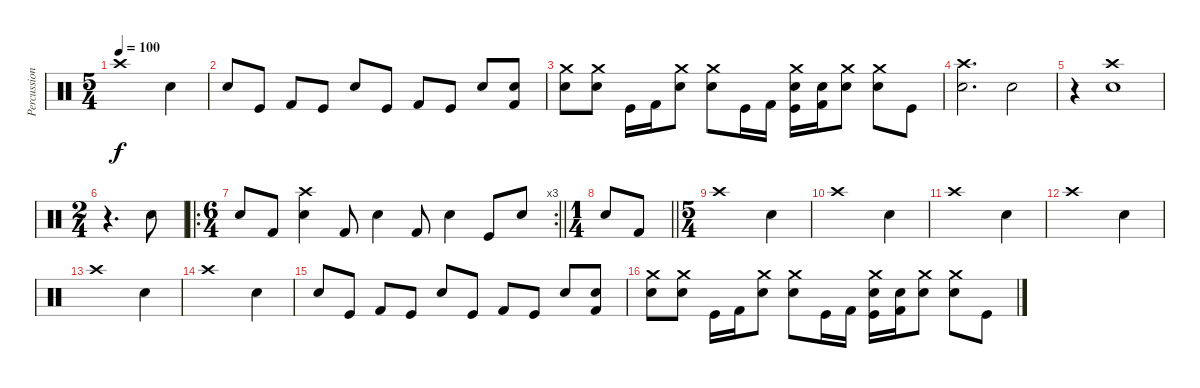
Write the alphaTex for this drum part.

\track ("Percussion" "Percussion") {instrument percussion}
\staff {score}
\articulation defaults
\ts (5 4)
\tempo 100
\clef neutral
\ks c "Crash high (hit)".1{dy f} "Snare (hit) 2".4
|
"Snare (hit) 2".8 "Kick (hit)".8 "Kick (hit) 2".8 "Kick (hit)".8 "Snare (hit) 2".8 "Kick (hit)".8 "Kick (hit) 2".8 "Kick (hit)".8 "Snare (hit) 2".8 ("Snare (hit) 2" "Kick (hit) 2").8 |
("Crash medium (hit)" "Snare (hit) 2").8 ("Crash medium (hit)" "Snare (hit) 2").8 "Kick (hit)".16 "Kick (hit) 2".16 ("Crash medium (hit)" "Snare (hit) 2").8 ("Crash medium (hit)" "Snare (hit) 2").8 "Kick (hit)".16 "Kick (hit) 2".16 ("Crash medium (hit)" "Snare (hit) 2" "Kick (hit)").16 ("Snare (hit) 2" "Kick (hit) 2").16 ("Crash medium (hit)" "Snare (hit) 2").8 ("Crash medium (hit)" "Snare (hit) 2").8 "Kick (hit)".8 |
("Crash high (hit)" "Snare (hit) 2").2{d} "Snare (hit) 2".2 |
r.4 ("Crash high (hit)" "Snare (hit) 2").1 |
\ts (2 4)
r.4{d} "Snare (hit) 2".8 |
\ro
\rc 3
\ts (6 4)
\barLineRight lightlight "Snare (hit) 2".8 "Kick (hit) 2".8
("Crash high (hit)" "Snare (hit) 2").4 "Kick (hit) 2".8 "Snare (hit) 2".4 "Kick (hit) 2".8 "Snare (hit) 2".4 "Kick (hit)".8 "Snare (hit) 2".8 |
\ts (1 4)
\barLineRight lightlight "Snare (hit) 2".8 "Kick (hit) 2".8
|
\ts (5 4)
"Crash high (hit)".1 "Snare (hit) 2".4 |
"Crash high (hit)".1 "Snare (hit) 2".4 |
"Crash high (hit)".1 "Snare (hit) 2".4 |
"Crash high (hit)".1 "Snare (hit) 2".4 |
"Crash high (hit)".1 "Snare (hit) 2".4 |
"Crash high (hit)".1 "Snare (hit) 2".4 |
"Snare (hit) 2".8 "Kick (hit)".8 "Kick (hit) 2".8 "Kick (hit)".8 "Snare (hit) 2".8 "Kick (hit)".8 "Kick (hit) 2".8 "Kick (hit)".8 "Snare (hit) 2".8 ("Snare (hit) 2" "Kick (hit) 2").8 |
("Crash medium (hit)" "Snare (hit) 2").8 ("Crash medium (hit)" "Snare (hit) 2").8 "Kick (hit)".16 "Kick (hit) 2".16 ("Crash medium (hit)" "Snare (hit) 2").8 ("Crash medium (hit)" "Snare (hit) 2").8 "Kick (hit)".16 "Kick (hit) 2".16 ("Crash medium (hit)" "Snare (hit) 2" "Kick (hit)").16 ("Snare (hit) 2" "Kick (hit) 2").16 ("Crash medium (hit)" "Snare (hit) 2").8 ("Crash medium (hit)" "Snare (hit) 2").8 "Kick (hit)".8
